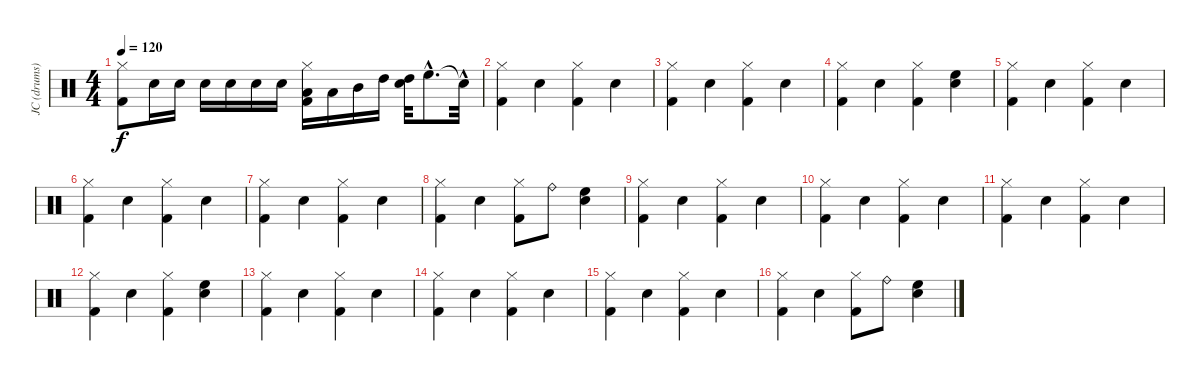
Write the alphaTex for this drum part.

\track ("JC (drums)" "JC (drums)") {instrument percussion}
\staff {score}
\articulation defaults
\ts (4 4)
\tempo 120
\clef neutral
\ks c
("Hi-Hat (closed)" "Kick (hit) 2").8{dy f} "Electric Snare (hit)".16 "Electric Snare (hit)".16 "Snare (hit) 2".16 "Electric Snare (hit)".16 "Snare (hit) 2".16 "Electric Snare (hit)".16 ("Low Floor Tom (hit)" "Hi-Hat (closed)" "Kick (hit) 2").16 "Low Tom (hit)".16 "Mid Tom (hit)".16 "High Tom (hit)".16 ("High Tom (hit)" "Snare (hit) 2").32 "High Floor Tom (hit)"{hac}.8{d} "Snare (hit)"{hac t}.32 |
("Hi-Hat (closed)" "Kick (hit) 2").4 "Electric Snare (hit)".4 ("Hi-Hat (closed)" "Kick (hit) 2").4 "Snare (hit) 2".4 |
("Hi-Hat (closed)" "Kick (hit) 2").4 "Electric Snare (hit)".4 ("Hi-Hat (closed)" "Kick (hit) 2").4 "Snare (hit) 2".4 |
("Hi-Hat (closed)" "Kick (hit) 2").4 "Electric Snare (hit)".4 ("Hi-Hat (closed)" "Kick (hit) 2").4 ("High Floor Tom (hit)" "Snare (hit) 2").4 |
("Hi-Hat (closed)" "Kick (hit) 2").4 "Electric Snare (hit)".4 ("Hi-Hat (closed)" "Kick (hit) 2").4 "Snare (hit) 2".4 |
("Hi-Hat (closed)" "Kick (hit) 2").4 "Electric Snare (hit)".4 ("Hi-Hat (closed)" "Kick (hit) 2").4 "Snare (hit) 2".4 |
("Hi-Hat (closed)" "Kick (hit) 2").4 "Electric Snare (hit)".4 ("Hi-Hat (closed)" "Kick (hit) 2").4 "Snare (hit) 2".4 |
("Hi-Hat (closed)" "Kick (hit) 2").4 "Electric Snare (hit)".4 ("Hi-Hat (closed)" "Kick (hit) 2").8 "Ride (bell)".8 ("High Floor Tom (hit)" "Snare (hit) 2").4 |
("Hi-Hat (closed)" "Kick (hit) 2").4 "Electric Snare (hit)".4 ("Hi-Hat (closed)" "Kick (hit) 2").4 "Snare (hit) 2".4 |
("Hi-Hat (closed)" "Kick (hit) 2").4 "Electric Snare (hit)".4 ("Hi-Hat (closed)" "Kick (hit) 2").4 "Snare (hit) 2".4 |
("Hi-Hat (closed)" "Kick (hit) 2").4 "Electric Snare (hit)".4 ("Hi-Hat (closed)" "Kick (hit) 2").4 "Snare (hit) 2".4 |
("Hi-Hat (closed)" "Kick (hit) 2").4 "Electric Snare (hit)".4 ("Hi-Hat (closed)" "Kick (hit) 2").4 ("High Floor Tom (hit)" "Snare (hit) 2").4 |
("Hi-Hat (closed)" "Kick (hit) 2").4 "Electric Snare (hit)".4 ("Hi-Hat (closed)" "Kick (hit) 2").4 "Snare (hit) 2".4 |
("Hi-Hat (closed)" "Kick (hit) 2").4 "Electric Snare (hit)".4 ("Hi-Hat (closed)" "Kick (hit) 2").4 "Snare (hit) 2".4 |
("Hi-Hat (closed)" "Kick (hit) 2").4 "Electric Snare (hit)".4 ("Hi-Hat (closed)" "Kick (hit) 2").4 "Snare (hit) 2".4 |
("Hi-Hat (closed)" "Kick (hit) 2").4 "Electric Snare (hit)".4 ("Hi-Hat (closed)" "Kick (hit) 2").8 "Ride (bell)".8 ("High Floor Tom (hit)" "Snare (hit) 2").4
